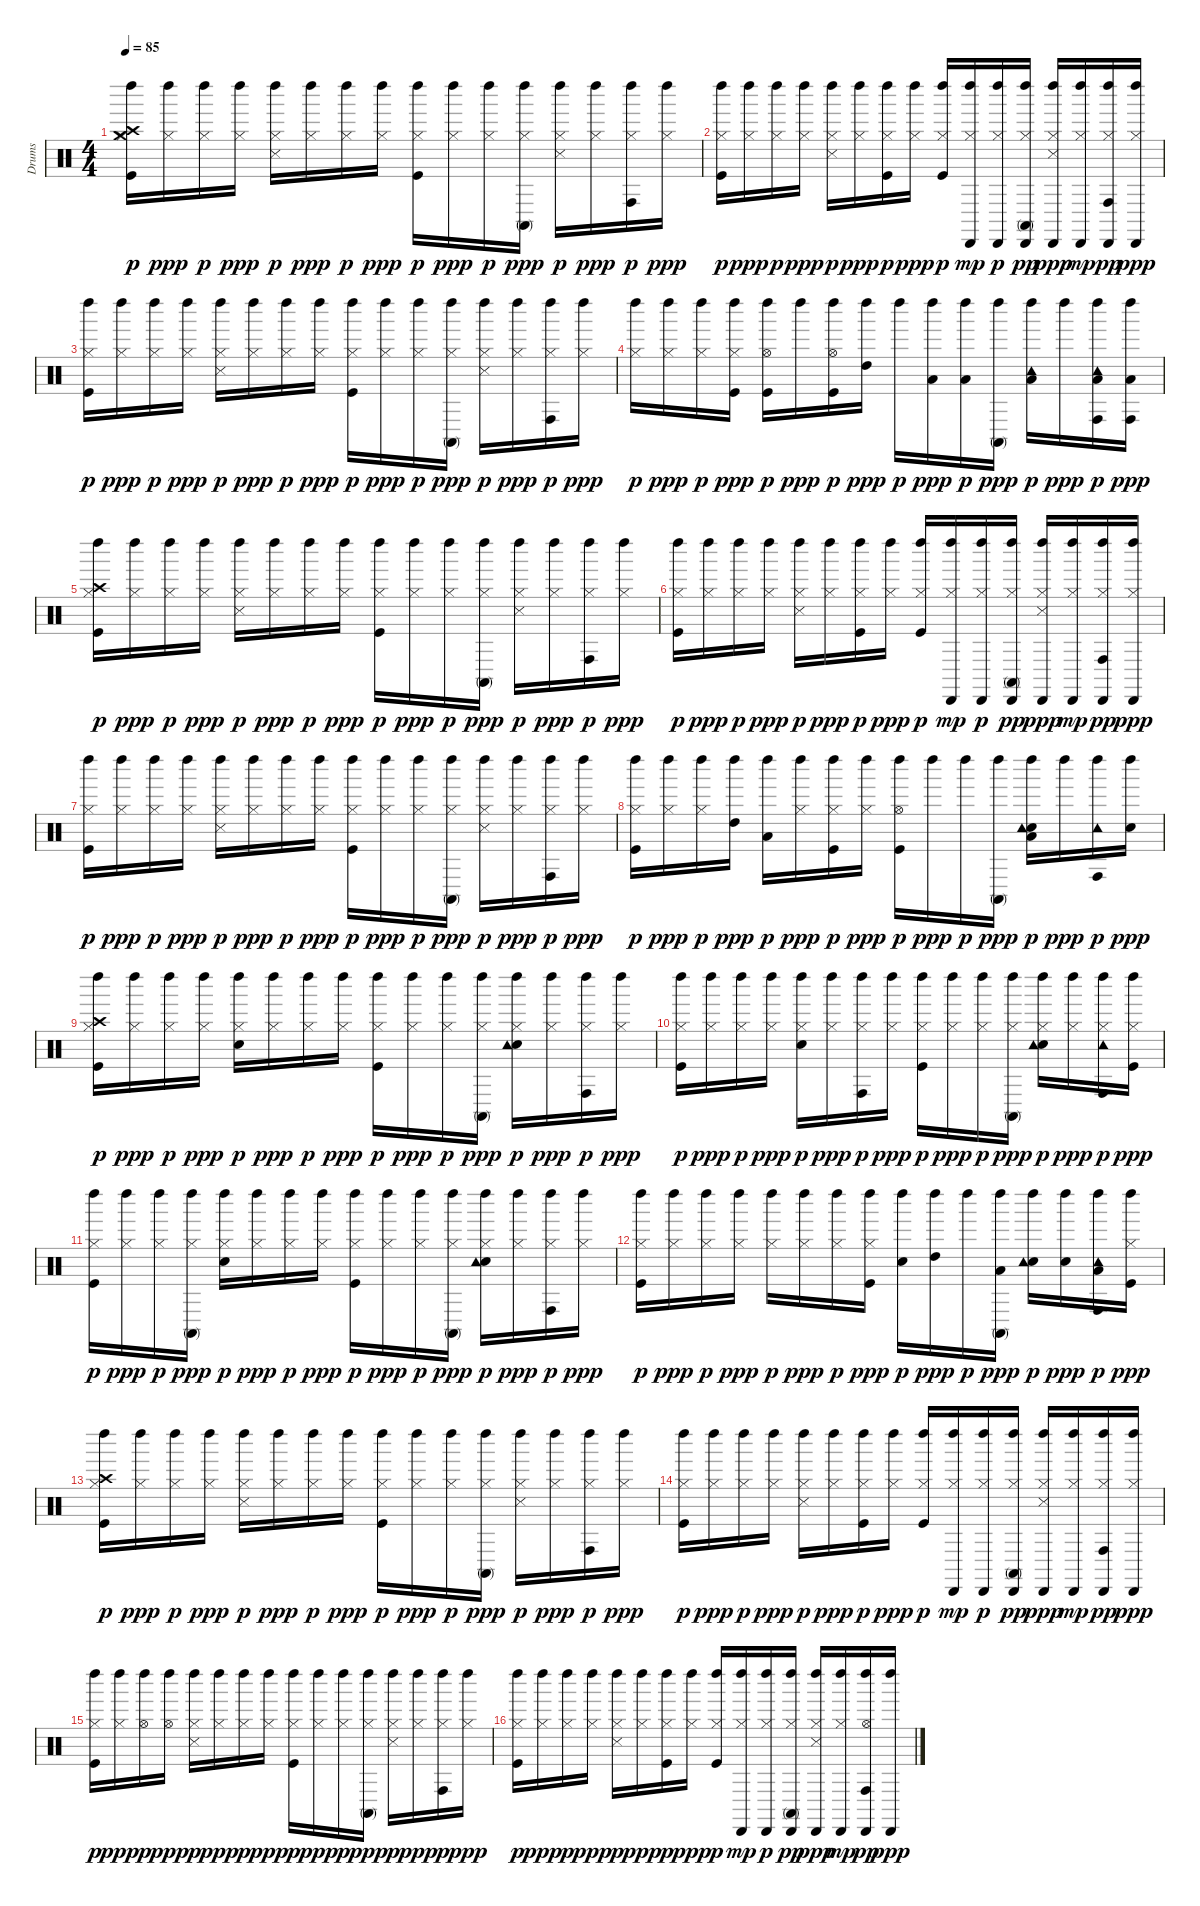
\track ("Drums" "Drums") {instrument percussion}
\staff {score}
\articulation defaults
\ts (4 4)
\tempo 85
\clef neutral
\ks c
("Crash medium (hit)" "Kick (hit)" "Hi-Hat (closed)" "Crash high (hit)" "Left Maraca (hit)").16{dy p} ("Hi-Hat (closed)" "Left Maraca (hit)").16{dy ppp} ("Hi-Hat (closed)" "Left Maraca (hit)").16{dy p} ("Hi-Hat (closed)" "Left Maraca (hit)").16{dy ppp} ("Hi-Hat (closed)" "Snare (side stick) 3" "Left Maraca (hit)").16{dy p} ("Hi-Hat (closed)" "Left Maraca (hit)").16{dy ppp} ("Hi-Hat (closed)" "Left Maraca (hit)").16{dy p} ("Hi-Hat (closed)" "Left Maraca (hit)").16{dy ppp} ("Kick (hit)" "Hi-Hat (closed)" "Left Maraca (hit)").16{dy p} ("Hi-Hat (closed)" "Left Maraca (hit)").16{dy ppp} ("Hi-Hat (closed)" "Left Maraca (hit)").16{dy p} ("Hi-Hat (closed)" "Conga high (mute)" "Left Maraca (hit)").16{dy ppp} ("Hi-Hat (closed)" "Snare (side stick) 3" "Left Maraca (hit)").16{dy p} ("Hi-Hat (closed)" "Left Maraca (hit)").16{dy ppp} ("Hi-Hat (closed)" "Conga high (hit)" "Left Maraca (hit)").16{dy p} ("Hi-Hat (closed)" "Left Maraca (hit)").16{dy ppp} |
("Kick (hit)" "Hi-Hat (closed)" "Left Maraca (hit)").16{dy p} ("Hi-Hat (closed)" "Left Maraca (hit)").16{dy ppp} ("Hi-Hat (closed)" "Left Maraca (hit)").16{dy p} ("Hi-Hat (closed)" "Left Maraca (hit)").16{dy ppp} ("Hi-Hat (closed)" "Snare (side stick) 3" "Left Maraca (hit)").16{dy p} ("Hi-Hat (closed)" "Left Maraca (hit)").16{dy ppp} ("Kick (hit)" "Hi-Hat (closed)" "Left Maraca (hit)").16{dy p} ("Hi-Hat (closed)" "Left Maraca (hit)").16{dy ppp} ("Kick (hit)" "Hi-Hat (closed)" "Left Maraca (hit)").16{dy p} ("Hi-Hat (closed)" "Left Maraca (hit)" "Cabasa (hit)").16{dy mp} ("Hi-Hat (closed)" "Left Maraca (hit)" "Cabasa (hit)").16{dy p} ("Hi-Hat (closed)" "Conga high (mute)" "Left Maraca (hit)" "Cabasa (hit)").16{dy pp} ("Hi-Hat (closed)" "Snare (side stick) 3" "Left Maraca (hit)" "Cabasa (hit)").16{dy ppp} ("Hi-Hat (closed)" "Left Maraca (hit)" "Cabasa (hit)").16{dy mp} ("Hi-Hat (closed)" "Conga high (hit)" "Left Maraca (hit)" "Cabasa (hit)").16{dy pp} ("Hi-Hat (closed)" "Left Maraca (hit)" "Cabasa (hit)").16{dy ppp} |
("Kick (hit)" "Hi-Hat (closed)" "Left Maraca (hit)").16{dy p} ("Hi-Hat (closed)" "Left Maraca (hit)").16{dy ppp} ("Hi-Hat (closed)" "Left Maraca (hit)").16{dy p} ("Hi-Hat (closed)" "Left Maraca (hit)").16{dy ppp} ("Hi-Hat (closed)" "Snare (side stick) 3" "Left Maraca (hit)").16{dy p} ("Hi-Hat (closed)" "Left Maraca (hit)").16{dy ppp} ("Hi-Hat (closed)" "Left Maraca (hit)").16{dy p} ("Hi-Hat (closed)" "Left Maraca (hit)").16{dy ppp} ("Kick (hit)" "Hi-Hat (closed)" "Left Maraca (hit)").16{dy p} ("Hi-Hat (closed)" "Left Maraca (hit)").16{dy ppp} ("Hi-Hat (closed)" "Left Maraca (hit)").16{dy p} ("Hi-Hat (closed)" "Conga high (mute)" "Left Maraca (hit)").16{dy ppp} ("Hi-Hat (closed)" "Snare (side stick) 3" "Left Maraca (hit)").16{dy p} ("Hi-Hat (closed)" "Left Maraca (hit)").16{dy ppp} ("Hi-Hat (closed)" "Conga high (hit)" "Left Maraca (hit)").16{dy p} ("Hi-Hat (closed)" "Left Maraca (hit)").16{dy ppp} |
("Hi-Hat (closed)" "Left Maraca (hit)").16{dy p} ("Hi-Hat (closed)" "Left Maraca (hit)").16{dy ppp} ("Hi-Hat (closed)" "Left Maraca (hit)").16{dy p} ("Kick (hit)" "Hi-Hat (closed)" "Left Maraca (hit)").16{dy ppp} ("Kick (hit)" "Hi-Hat (open)" "Left Maraca (hit)").16{dy p} "Left Maraca (hit)".16{dy ppp} ("Kick (hit)" "Hi-Hat (open)" "Left Maraca (hit)").16{dy p} ("High Tom (hit)" "Left Maraca (hit)").16{dy ppp} "Left Maraca (hit)".16{dy p} ("Low Tom (hit)" "Left Maraca (hit)").16{dy ppp} ("Low Tom (hit)" "Left Maraca (hit)").16{dy p} ("Conga high (mute)" "Left Maraca (hit)").16{dy ppp} ("Low Tom (hit)" "Tambourine (hit)" "Left Maraca (hit)").16{dy p} "Left Maraca (hit)".16{dy ppp} ("Low Floor Tom (hit)" "Conga high (hit)" "Tambourine (hit)" "Left Maraca (hit)").16{dy p} ("Low Floor Tom (hit)" "Conga high (hit)" "Left Maraca (hit)").16{dy ppp} |
("Kick (hit)" "Hi-Hat (closed)" "Crash high (hit)" "Left Maraca (hit)").16{dy p} ("Hi-Hat (closed)" "Left Maraca (hit)").16{dy ppp} ("Hi-Hat (closed)" "Left Maraca (hit)").16{dy p} ("Hi-Hat (closed)" "Left Maraca (hit)").16{dy ppp} ("Hi-Hat (closed)" "Snare (side stick) 3" "Left Maraca (hit)").16{dy p} ("Hi-Hat (closed)" "Left Maraca (hit)").16{dy ppp} ("Hi-Hat (closed)" "Left Maraca (hit)").16{dy p} ("Hi-Hat (closed)" "Left Maraca (hit)").16{dy ppp} ("Kick (hit)" "Hi-Hat (closed)" "Left Maraca (hit)").16{dy p} ("Hi-Hat (closed)" "Left Maraca (hit)").16{dy ppp} ("Hi-Hat (closed)" "Left Maraca (hit)").16{dy p} ("Hi-Hat (closed)" "Conga high (mute)" "Left Maraca (hit)").16{dy ppp} ("Hi-Hat (closed)" "Snare (side stick) 3" "Left Maraca (hit)").16{dy p} ("Hi-Hat (closed)" "Left Maraca (hit)").16{dy ppp} ("Hi-Hat (closed)" "Conga high (hit)" "Left Maraca (hit)").16{dy p} ("Hi-Hat (closed)" "Left Maraca (hit)").16{dy ppp} |
("Kick (hit)" "Hi-Hat (closed)" "Left Maraca (hit)").16{dy p} ("Hi-Hat (closed)" "Left Maraca (hit)").16{dy ppp} ("Hi-Hat (closed)" "Left Maraca (hit)").16{dy p} ("Hi-Hat (closed)" "Left Maraca (hit)").16{dy ppp} ("Hi-Hat (closed)" "Snare (side stick) 3" "Left Maraca (hit)").16{dy p} ("Hi-Hat (closed)" "Left Maraca (hit)").16{dy ppp} ("Kick (hit)" "Hi-Hat (closed)" "Left Maraca (hit)").16{dy p} ("Hi-Hat (closed)" "Left Maraca (hit)").16{dy ppp} ("Kick (hit)" "Hi-Hat (closed)" "Left Maraca (hit)").16{dy p} ("Hi-Hat (closed)" "Left Maraca (hit)" "Cabasa (hit)").16{dy mp} ("Hi-Hat (closed)" "Left Maraca (hit)" "Cabasa (hit)").16{dy p} ("Hi-Hat (closed)" "Conga high (mute)" "Left Maraca (hit)" "Cabasa (hit)").16{dy pp} ("Hi-Hat (closed)" "Snare (side stick) 3" "Left Maraca (hit)" "Cabasa (hit)").16{dy ppp} ("Hi-Hat (closed)" "Left Maraca (hit)" "Cabasa (hit)").16{dy mp} ("Hi-Hat (closed)" "Conga high (hit)" "Left Maraca (hit)" "Cabasa (hit)").16{dy pp} ("Hi-Hat (closed)" "Left Maraca (hit)" "Cabasa (hit)").16{dy ppp} |
("Kick (hit)" "Hi-Hat (closed)" "Left Maraca (hit)").16{dy p} ("Hi-Hat (closed)" "Left Maraca (hit)").16{dy ppp} ("Hi-Hat (closed)" "Left Maraca (hit)").16{dy p} ("Hi-Hat (closed)" "Left Maraca (hit)").16{dy ppp} ("Hi-Hat (closed)" "Snare (side stick) 3" "Left Maraca (hit)").16{dy p} ("Hi-Hat (closed)" "Left Maraca (hit)").16{dy ppp} ("Hi-Hat (closed)" "Left Maraca (hit)").16{dy p} ("Hi-Hat (closed)" "Left Maraca (hit)").16{dy ppp} ("Kick (hit)" "Hi-Hat (closed)" "Left Maraca (hit)").16{dy p} ("Hi-Hat (closed)" "Left Maraca (hit)").16{dy ppp} ("Hi-Hat (closed)" "Left Maraca (hit)").16{dy p} ("Hi-Hat (closed)" "Conga high (mute)" "Left Maraca (hit)").16{dy ppp} ("Hi-Hat (closed)" "Snare (side stick) 3" "Left Maraca (hit)").16{dy p} ("Hi-Hat (closed)" "Left Maraca (hit)").16{dy ppp} ("Hi-Hat (closed)" "Conga high (hit)" "Left Maraca (hit)").16{dy p} ("Hi-Hat (closed)" "Left Maraca (hit)").16{dy ppp} |
("Kick (hit)" "Hi-Hat (closed)" "Left Maraca (hit)").16{dy p} ("Hi-Hat (closed)" "Left Maraca (hit)").16{dy ppp} ("Hi-Hat (closed)" "Left Maraca (hit)").16{dy p} ("High Tom (hit)" "Left Maraca (hit)").16{dy ppp} ("Low Tom (hit)" "Left Maraca (hit)").16{dy p} ("Hi-Hat (closed)" "Left Maraca (hit)").16{dy ppp} ("Kick (hit)" "Hi-Hat (closed)" "Left Maraca (hit)").16{dy p} ("Hi-Hat (closed)" "Left Maraca (hit)").16{dy ppp} ("Kick (hit)" "Hi-Hat (open)" "Left Maraca (hit)").16{dy p} "Left Maraca (hit)".16{dy ppp} "Left Maraca (hit)".16{dy p} ("Conga high (mute)" "Left Maraca (hit)").16{dy ppp} ("Snare (hit) 2" "Low Floor Tom (hit)" "Tambourine (hit)" "Left Maraca (hit)").16{dy p} "Left Maraca (hit)".16{dy ppp} ("Conga high (hit)" "Tambourine (hit)" "Left Maraca (hit)").16{dy p} ("Snare (hit) 2" "Left Maraca (hit)").16{dy ppp} |
("Kick (hit)" "Hi-Hat (closed)" "Crash high (hit)" "Left Maraca (hit)").16{dy p} ("Hi-Hat (closed)" "Left Maraca (hit)").16{dy ppp} ("Hi-Hat (closed)" "Left Maraca (hit)").16{dy p} ("Hi-Hat (closed)" "Left Maraca (hit)").16{dy ppp} ("Snare (hit) 2" "Hi-Hat (closed)" "Left Maraca (hit)").16{dy p} ("Hi-Hat (closed)" "Left Maraca (hit)").16{dy ppp} ("Hi-Hat (closed)" "Left Maraca (hit)").16{dy p} ("Hi-Hat (closed)" "Left Maraca (hit)").16{dy ppp} ("Kick (hit)" "Hi-Hat (closed)" "Left Maraca (hit)").16{dy p} ("Hi-Hat (closed)" "Left Maraca (hit)").16{dy ppp} ("Hi-Hat (closed)" "Left Maraca (hit)").16{dy p} ("Hi-Hat (closed)" "Conga high (mute)" "Left Maraca (hit)").16{dy ppp} ("Snare (hit) 2" "Hi-Hat (closed)" "Tambourine (hit)" "Left Maraca (hit)").16{dy p} ("Hi-Hat (closed)" "Left Maraca (hit)").16{dy ppp} ("Hi-Hat (closed)" "Conga high (hit)" "Left Maraca (hit)").16{dy p} ("Hi-Hat (closed)" "Left Maraca (hit)").16{dy ppp} |
("Kick (hit)" "Hi-Hat (closed)" "Left Maraca (hit)").16{dy p} ("Hi-Hat (closed)" "Left Maraca (hit)").16{dy ppp} ("Hi-Hat (closed)" "Left Maraca (hit)").16{dy p} ("Hi-Hat (closed)" "Left Maraca (hit)").16{dy ppp} ("Snare (hit) 2" "Hi-Hat (closed)" "Left Maraca (hit)").16{dy p} ("Hi-Hat (closed)" "Left Maraca (hit)").16{dy ppp} ("Hi-Hat (closed)" "Conga high (hit)" "Left Maraca (hit)").16{dy p} ("Hi-Hat (closed)" "Left Maraca (hit)").16{dy ppp} ("Kick (hit)" "Hi-Hat (closed)" "Left Maraca (hit)").16{dy p} ("Hi-Hat (closed)" "Left Maraca (hit)").16{dy ppp} ("Hi-Hat (closed)" "Left Maraca (hit)").16{dy p} ("Hi-Hat (closed)" "Conga high (mute)" "Left Maraca (hit)").16{dy ppp} ("Snare (hit) 2" "Hi-Hat (closed)" "Tambourine (hit)" "Left Maraca (hit)").16{dy p} ("Hi-Hat (closed)" "Left Maraca (hit)").16{dy ppp} ("Hi-Hat (closed)" "Conga high (hit)" "Tambourine (hit)" "Left Maraca (hit)").16{dy p} ("Kick (hit)" "Hi-Hat (closed)" "Left Maraca (hit)").16{dy ppp} |
("Kick (hit)" "Hi-Hat (closed)" "Left Maraca (hit)").16{dy p} ("Hi-Hat (closed)" "Left Maraca (hit)").16{dy ppp} ("Hi-Hat (closed)" "Left Maraca (hit)").16{dy p} ("Hi-Hat (closed)" "Conga high (mute)" "Left Maraca (hit)").16{dy ppp} ("Snare (hit) 2" "Hi-Hat (closed)" "Left Maraca (hit)").16{dy p} ("Hi-Hat (closed)" "Left Maraca (hit)").16{dy ppp} ("Hi-Hat (closed)" "Left Maraca (hit)").16{dy p} ("Hi-Hat (closed)" "Left Maraca (hit)").16{dy ppp} ("Kick (hit)" "Hi-Hat (closed)" "Left Maraca (hit)").16{dy p} ("Hi-Hat (closed)" "Left Maraca (hit)").16{dy ppp} ("Hi-Hat (closed)" "Left Maraca (hit)").16{dy p} ("Hi-Hat (closed)" "Conga high (mute)" "Left Maraca (hit)").16{dy ppp} ("Snare (hit) 2" "Hi-Hat (closed)" "Tambourine (hit)" "Left Maraca (hit)").16{dy p} ("Hi-Hat (closed)" "Left Maraca (hit)").16{dy ppp} ("Hi-Hat (closed)" "Conga high (hit)" "Left Maraca (hit)").16{dy p} ("Hi-Hat (closed)" "Left Maraca (hit)").16{dy ppp} |
("Kick (hit)" "Hi-Hat (closed)" "Left Maraca (hit)").16{dy p} ("Hi-Hat (closed)" "Left Maraca (hit)").16{dy ppp} ("Hi-Hat (closed)" "Left Maraca (hit)").16{dy p} ("Hi-Hat (closed)" "Left Maraca (hit)").16{dy ppp} ("Hi-Hat (closed)" "Left Maraca (hit)").16{dy p} ("Hi-Hat (closed)" "Left Maraca (hit)").16{dy ppp} ("Hi-Hat (closed)" "Left Maraca (hit)").16{dy p} ("Kick (hit)" "Hi-Hat (closed)" "Left Maraca (hit)").16{dy ppp} ("Snare (hit) 2" "Left Maraca (hit)").16{dy p} ("High Tom (hit)" "Left Maraca (hit)").16{dy ppp} "Left Maraca (hit)".16{dy p} ("Low Tom (hit)" "Conga high (mute)" "Left Maraca (hit)").16{dy ppp} ("Snare (hit) 2" "Tambourine (hit)" "Left Maraca (hit)").16{dy p} ("Snare (hit) 2" "Left Maraca (hit)").16{dy ppp} ("Low Floor Tom (hit)" "Conga high (hit)" "Tambourine (hit)" "Left Maraca (hit)").16{dy p} ("Kick (hit)" "Hi-Hat (closed)" "Left Maraca (hit)").16{dy ppp} |
("Kick (hit)" "Hi-Hat (closed)" "Crash high (hit)" "Left Maraca (hit)").16{dy p} ("Hi-Hat (closed)" "Left Maraca (hit)").16{dy ppp} ("Hi-Hat (closed)" "Left Maraca (hit)").16{dy p} ("Hi-Hat (closed)" "Left Maraca (hit)").16{dy ppp} ("Hi-Hat (closed)" "Snare (side stick) 3" "Left Maraca (hit)").16{dy p} ("Hi-Hat (closed)" "Left Maraca (hit)").16{dy ppp} ("Hi-Hat (closed)" "Left Maraca (hit)").16{dy p} ("Hi-Hat (closed)" "Left Maraca (hit)").16{dy ppp} ("Kick (hit)" "Hi-Hat (closed)" "Left Maraca (hit)").16{dy p} ("Hi-Hat (closed)" "Left Maraca (hit)").16{dy ppp} ("Hi-Hat (closed)" "Left Maraca (hit)").16{dy p} ("Hi-Hat (closed)" "Conga high (mute)" "Left Maraca (hit)").16{dy ppp} ("Hi-Hat (closed)" "Snare (side stick) 3" "Left Maraca (hit)").16{dy p} ("Hi-Hat (closed)" "Left Maraca (hit)").16{dy ppp} ("Hi-Hat (closed)" "Conga high (hit)" "Left Maraca (hit)").16{dy p} ("Hi-Hat (closed)" "Left Maraca (hit)").16{dy ppp} |
("Kick (hit)" "Hi-Hat (closed)" "Left Maraca (hit)").16{dy p} ("Hi-Hat (closed)" "Left Maraca (hit)").16{dy ppp} ("Hi-Hat (closed)" "Left Maraca (hit)").16{dy p} ("Hi-Hat (closed)" "Left Maraca (hit)").16{dy ppp} ("Hi-Hat (closed)" "Snare (side stick) 3" "Left Maraca (hit)").16{dy p} ("Hi-Hat (closed)" "Left Maraca (hit)").16{dy ppp} ("Kick (hit)" "Hi-Hat (closed)" "Left Maraca (hit)").16{dy p} ("Hi-Hat (closed)" "Left Maraca (hit)").16{dy ppp} ("Kick (hit)" "Hi-Hat (closed)" "Left Maraca (hit)").16{dy p} ("Hi-Hat (closed)" "Left Maraca (hit)" "Cabasa (hit)").16{dy mp} ("Hi-Hat (closed)" "Left Maraca (hit)" "Cabasa (hit)").16{dy p} ("Hi-Hat (closed)" "Conga high (mute)" "Left Maraca (hit)" "Cabasa (hit)").16{dy pp} ("Hi-Hat (closed)" "Snare (side stick) 3" "Left Maraca (hit)" "Cabasa (hit)").16{dy ppp} ("Hi-Hat (closed)" "Left Maraca (hit)" "Cabasa (hit)").16{dy mp} ("Hi-Hat (closed)" "Conga high (hit)" "Left Maraca (hit)" "Cabasa (hit)").16{dy pp} ("Hi-Hat (closed)" "Left Maraca (hit)" "Cabasa (hit)").16{dy ppp} |
("Kick (hit)" "Hi-Hat (closed)" "Left Maraca (hit)").16{dy p} ("Hi-Hat (closed)" "Left Maraca (hit)").16{dy ppp} ("Hi-Hat (open)" "Left Maraca (hit)").16{dy p} ("Hi-Hat (open)" "Left Maraca (hit)").16{dy ppp} ("Hi-Hat (closed)" "Snare (side stick) 3" "Left Maraca (hit)").16{dy p} ("Hi-Hat (closed)" "Left Maraca (hit)").16{dy ppp} ("Hi-Hat (closed)" "Left Maraca (hit)").16{dy p} ("Hi-Hat (closed)" "Left Maraca (hit)").16{dy ppp} ("Kick (hit)" "Hi-Hat (closed)" "Left Maraca (hit)").16{dy p} ("Hi-Hat (closed)" "Left Maraca (hit)").16{dy ppp} ("Hi-Hat (closed)" "Left Maraca (hit)").16{dy p} ("Hi-Hat (closed)" "Conga high (mute)" "Left Maraca (hit)").16{dy ppp} ("Hi-Hat (closed)" "Snare (side stick) 3" "Left Maraca (hit)").16{dy p} ("Hi-Hat (closed)" "Left Maraca (hit)").16{dy ppp} ("Hi-Hat (closed)" "Conga high (hit)" "Left Maraca (hit)").16{dy p} ("Hi-Hat (closed)" "Left Maraca (hit)").16{dy ppp} |
("Kick (hit)" "Hi-Hat (closed)" "Left Maraca (hit)").16{dy p} ("Hi-Hat (closed)" "Left Maraca (hit)").16{dy ppp} ("Hi-Hat (closed)" "Left Maraca (hit)").16{dy p} ("Hi-Hat (closed)" "Left Maraca (hit)").16{dy ppp} ("Hi-Hat (closed)" "Snare (side stick) 3" "Left Maraca (hit)").16{dy p} ("Hi-Hat (closed)" "Left Maraca (hit)").16{dy ppp} ("Kick (hit)" "Hi-Hat (closed)" "Left Maraca (hit)").16{dy p} ("Hi-Hat (closed)" "Left Maraca (hit)").16{dy ppp} ("Kick (hit)" "Hi-Hat (closed)" "Left Maraca (hit)").16{dy p} ("Hi-Hat (closed)" "Left Maraca (hit)" "Cabasa (hit)").16{dy mp} ("Hi-Hat (closed)" "Left Maraca (hit)" "Cabasa (hit)").16{dy p} ("Hi-Hat (closed)" "Conga high (mute)" "Left Maraca (hit)" "Cabasa (hit)").16{dy pp} ("Hi-Hat (closed)" "Snare (side stick) 3" "Left Maraca (hit)" "Cabasa (hit)").16{dy ppp} ("Hi-Hat (closed)" "Left Maraca (hit)" "Cabasa (hit)").16{dy mp} ("Hi-Hat (open)" "Conga high (hit)" "Left Maraca (hit)" "Cabasa (hit)").16{dy pp} ("Left Maraca (hit)" "Cabasa (hit)").16{dy ppp}
